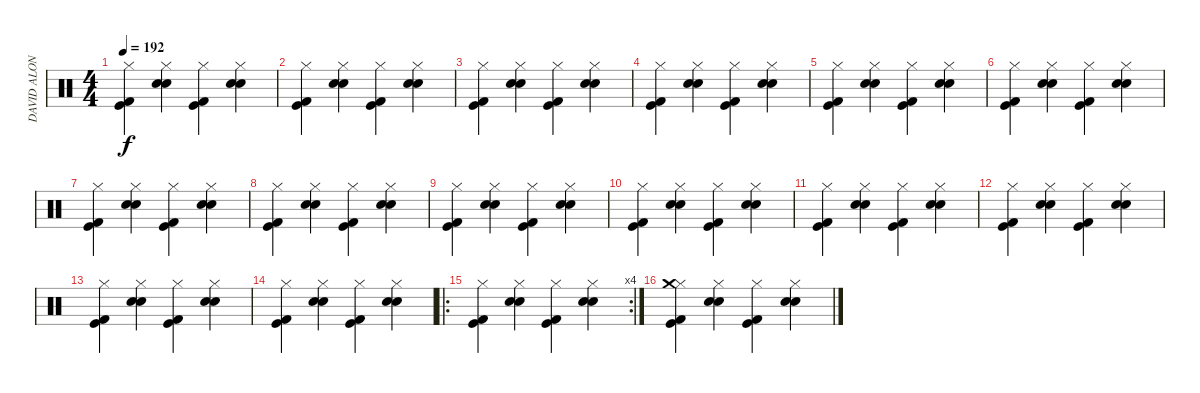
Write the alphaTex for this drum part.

\track ("DAVID ALONSO" "DAVID ALON") {instrument percussion}
\staff {score}
\articulation defaults
\ts (4 4)
\tempo 192
\clef neutral
\ks c
("Kick (hit)" "Kick (hit) 2" "Hi-Hat (closed)").4{dy f} ("Electric Snare (hit)" "Snare (hit) 2" "Hi-Hat (closed)").4 ("Kick (hit)" "Kick (hit) 2" "Hi-Hat (closed)").4 ("Electric Snare (hit)" "Snare (hit) 2" "Hi-Hat (closed)").4 |
("Kick (hit)" "Kick (hit) 2" "Hi-Hat (closed)").4 ("Electric Snare (hit)" "Snare (hit) 2" "Hi-Hat (closed)").4 ("Kick (hit)" "Kick (hit) 2" "Hi-Hat (closed)").4 ("Electric Snare (hit)" "Snare (hit) 2" "Hi-Hat (closed)").4 |
("Kick (hit)" "Kick (hit) 2" "Hi-Hat (closed)").4 ("Electric Snare (hit)" "Snare (hit) 2" "Hi-Hat (closed)").4 ("Kick (hit)" "Kick (hit) 2" "Hi-Hat (closed)").4 ("Electric Snare (hit)" "Snare (hit) 2" "Hi-Hat (closed)").4 |
("Kick (hit)" "Kick (hit) 2" "Hi-Hat (closed)").4 ("Electric Snare (hit)" "Snare (hit) 2" "Hi-Hat (closed)").4 ("Kick (hit)" "Kick (hit) 2" "Hi-Hat (closed)").4 ("Electric Snare (hit)" "Snare (hit) 2" "Hi-Hat (closed)").4 |
("Kick (hit)" "Kick (hit) 2" "Hi-Hat (closed)").4 ("Electric Snare (hit)" "Snare (hit) 2" "Hi-Hat (closed)").4 ("Kick (hit)" "Kick (hit) 2" "Hi-Hat (closed)").4 ("Electric Snare (hit)" "Snare (hit) 2" "Hi-Hat (closed)").4 |
("Kick (hit)" "Kick (hit) 2" "Hi-Hat (closed)").4 ("Electric Snare (hit)" "Snare (hit) 2" "Hi-Hat (closed)").4 ("Kick (hit)" "Kick (hit) 2" "Hi-Hat (closed)").4 ("Electric Snare (hit)" "Snare (hit) 2" "Hi-Hat (closed)").4 |
("Kick (hit)" "Kick (hit) 2" "Hi-Hat (closed)").4 ("Electric Snare (hit)" "Snare (hit) 2" "Hi-Hat (closed)").4 ("Kick (hit)" "Kick (hit) 2" "Hi-Hat (closed)").4 ("Electric Snare (hit)" "Snare (hit) 2" "Hi-Hat (closed)").4 |
("Kick (hit)" "Kick (hit) 2" "Hi-Hat (closed)").4 ("Electric Snare (hit)" "Snare (hit) 2" "Hi-Hat (closed)").4 ("Kick (hit)" "Kick (hit) 2" "Hi-Hat (closed)").4 ("Electric Snare (hit)" "Snare (hit) 2" "Hi-Hat (closed)").4 |
("Kick (hit)" "Kick (hit) 2" "Hi-Hat (closed)").4 ("Electric Snare (hit)" "Snare (hit) 2" "Hi-Hat (closed)").4 ("Kick (hit)" "Kick (hit) 2" "Hi-Hat (closed)").4 ("Electric Snare (hit)" "Snare (hit) 2" "Hi-Hat (closed)").4 |
("Kick (hit)" "Kick (hit) 2" "Hi-Hat (closed)").4 ("Electric Snare (hit)" "Snare (hit) 2" "Hi-Hat (closed)").4 ("Kick (hit)" "Kick (hit) 2" "Hi-Hat (closed)").4 ("Electric Snare (hit)" "Snare (hit) 2" "Hi-Hat (closed)").4 |
("Kick (hit)" "Kick (hit) 2" "Hi-Hat (closed)").4 ("Electric Snare (hit)" "Snare (hit) 2" "Hi-Hat (closed)").4 ("Kick (hit)" "Kick (hit) 2" "Hi-Hat (closed)").4 ("Electric Snare (hit)" "Snare (hit) 2" "Hi-Hat (closed)").4 |
("Kick (hit)" "Kick (hit) 2" "Hi-Hat (closed)").4 ("Electric Snare (hit)" "Snare (hit) 2" "Hi-Hat (closed)").4 ("Kick (hit)" "Kick (hit) 2" "Hi-Hat (closed)").4 ("Electric Snare (hit)" "Snare (hit) 2" "Hi-Hat (closed)").4 |
("Kick (hit)" "Kick (hit) 2" "Hi-Hat (closed)").4 ("Electric Snare (hit)" "Snare (hit) 2" "Hi-Hat (closed)").4 ("Kick (hit)" "Kick (hit) 2" "Hi-Hat (closed)").4 ("Electric Snare (hit)" "Snare (hit) 2" "Hi-Hat (closed)").4 |
("Kick (hit)" "Kick (hit) 2" "Hi-Hat (closed)").4 ("Electric Snare (hit)" "Snare (hit) 2" "Hi-Hat (closed)").4 ("Kick (hit)" "Kick (hit) 2" "Hi-Hat (closed)").4 ("Electric Snare (hit)" "Snare (hit) 2" "Hi-Hat (closed)").4 |
\ro
\rc 4
("Kick (hit)" "Kick (hit) 2" "Hi-Hat (closed)").4 ("Electric Snare (hit)" "Snare (hit) 2" "Hi-Hat (closed)").4 ("Kick (hit)" "Kick (hit) 2" "Hi-Hat (closed)").4 ("Electric Snare (hit)" "Snare (hit) 2" "Hi-Hat (closed)").4 |
("Kick (hit)" "Kick (hit) 2" "Hi-Hat (closed)" "Crash medium (hit)").4 ("Electric Snare (hit)" "Snare (hit) 2" "Hi-Hat (closed)").4 ("Kick (hit)" "Kick (hit) 2" "Hi-Hat (closed)").4 ("Electric Snare (hit)" "Snare (hit) 2" "Hi-Hat (closed)").4
